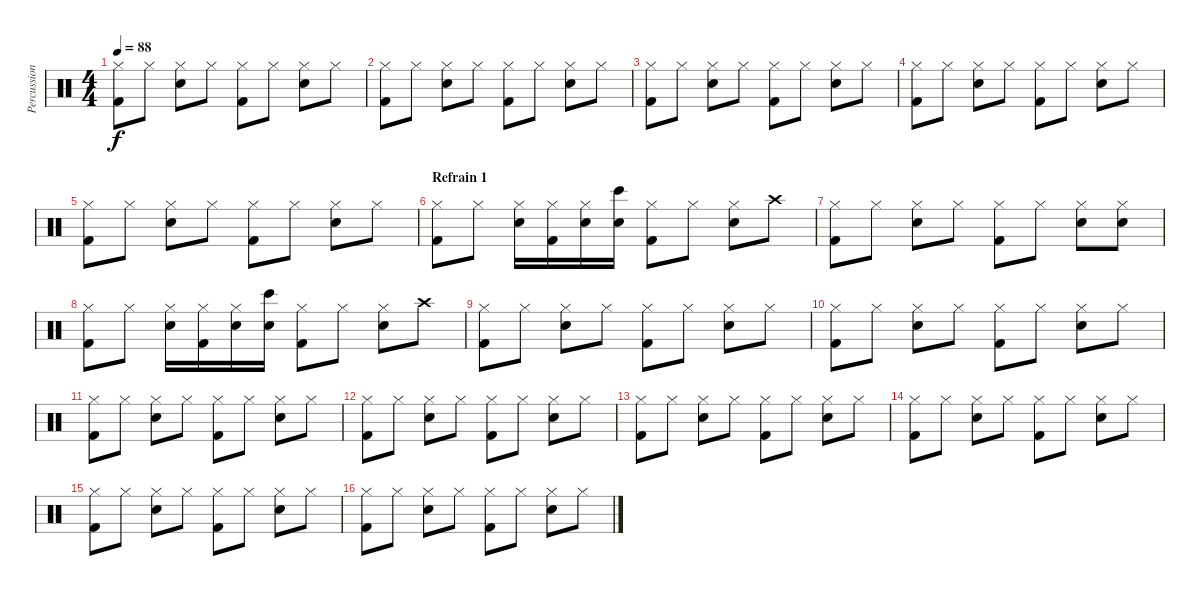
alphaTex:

\track ("Percussions" "Percussion") {instrument percussion}
\staff {score}
\articulation defaults
\ts (4 4)
\tempo 88
\clef neutral
\ks c
("Hi-Hat (closed)" "Kick (hit) 2").8{dy f} "Hi-Hat (closed)".8 ("Hi-Hat (closed)" "Snare (hit) 2").8 "Hi-Hat (closed)".8 ("Hi-Hat (closed)" "Kick (hit) 2").8 "Hi-Hat (closed)".8 ("Hi-Hat (closed)" "Snare (hit) 2").8 "Hi-Hat (closed)".8 |
("Hi-Hat (closed)" "Kick (hit) 2").8 "Hi-Hat (closed)".8 ("Hi-Hat (closed)" "Snare (hit) 2").8 "Hi-Hat (closed)".8 ("Hi-Hat (closed)" "Kick (hit) 2").8 "Hi-Hat (closed)".8 ("Hi-Hat (closed)" "Snare (hit) 2").8 "Hi-Hat (closed)".8 |
("Hi-Hat (closed)" "Kick (hit) 2").8 "Hi-Hat (closed)".8 ("Hi-Hat (closed)" "Snare (hit) 2").8 "Hi-Hat (closed)".8 ("Hi-Hat (closed)" "Kick (hit) 2").8 "Hi-Hat (closed)".8 ("Hi-Hat (closed)" "Snare (hit) 2").8 "Hi-Hat (closed)".8 |
("Hi-Hat (closed)" "Kick (hit) 2").8 "Hi-Hat (closed)".8 ("Hi-Hat (closed)" "Snare (hit) 2").8 "Hi-Hat (closed)".8 ("Hi-Hat (closed)" "Kick (hit) 2").8 "Hi-Hat (closed)".8 ("Hi-Hat (closed)" "Snare (hit) 2").8 "Hi-Hat (closed)".8 |
("Hi-Hat (closed)" "Kick (hit) 2").8 "Hi-Hat (closed)".8 ("Hi-Hat (closed)" "Snare (hit) 2").8 "Hi-Hat (closed)".8 ("Hi-Hat (closed)" "Kick (hit) 2").8 "Hi-Hat (closed)".8 ("Hi-Hat (closed)" "Snare (hit) 2").8 "Hi-Hat (closed)".8 |
\section ("" "Refrain 1 ")
("Hi-Hat (closed)" "Kick (hit) 2").8 "Hi-Hat (closed)".8 ("Hi-Hat (closed)" "Snare (hit) 2").16 ("Hi-Hat (closed)" "Kick (hit) 2").16 ("Hi-Hat (closed)" "Snare (hit) 2").16 ("Bongo High (hit)" "Snare (hit) 2").16 ("Hi-Hat (closed)" "Kick (hit) 2").8 "Hi-Hat (closed)".8 ("Hi-Hat (closed)" "Snare (hit) 2").8 "Crash high (hit)".8 |
("Hi-Hat (closed)" "Kick (hit) 2").8 "Hi-Hat (closed)".8 ("Hi-Hat (closed)" "Snare (hit) 2").8 "Hi-Hat (closed)".8 ("Hi-Hat (closed)" "Kick (hit) 2").8 "Hi-Hat (closed)".8 ("Hi-Hat (closed)" "Snare (hit) 2").8 ("Hi-Hat (closed)" "Snare (hit) 2").8 |
("Hi-Hat (closed)" "Kick (hit) 2").8 "Hi-Hat (closed)".8 ("Hi-Hat (closed)" "Snare (hit) 2").16 ("Hi-Hat (closed)" "Kick (hit) 2").16 ("Hi-Hat (closed)" "Snare (hit) 2").16 ("Bongo High (hit)" "Snare (hit) 2").16 ("Hi-Hat (closed)" "Kick (hit) 2").8 "Hi-Hat (closed)".8 ("Hi-Hat (closed)" "Snare (hit) 2").8 "Crash high (hit)".8 |
("Hi-Hat (closed)" "Kick (hit) 2").8 "Hi-Hat (closed)".8 ("Hi-Hat (closed)" "Snare (hit) 2").8 "Hi-Hat (closed)".8 ("Hi-Hat (closed)" "Kick (hit) 2").8 "Hi-Hat (closed)".8 ("Hi-Hat (closed)" "Snare (hit) 2").8 "Hi-Hat (closed)".8 |
("Hi-Hat (closed)" "Kick (hit) 2").8 "Hi-Hat (closed)".8 ("Hi-Hat (closed)" "Snare (hit) 2").8 "Hi-Hat (closed)".8 ("Hi-Hat (closed)" "Kick (hit) 2").8 "Hi-Hat (closed)".8 ("Hi-Hat (closed)" "Snare (hit) 2").8 "Hi-Hat (closed)".8 |
("Hi-Hat (closed)" "Kick (hit) 2").8 "Hi-Hat (closed)".8 ("Hi-Hat (closed)" "Snare (hit) 2").8 "Hi-Hat (closed)".8 ("Hi-Hat (closed)" "Kick (hit) 2").8 "Hi-Hat (closed)".8 ("Hi-Hat (closed)" "Snare (hit) 2").8 "Hi-Hat (closed)".8 |
("Hi-Hat (closed)" "Kick (hit) 2").8 "Hi-Hat (closed)".8 ("Hi-Hat (closed)" "Snare (hit) 2").8 "Hi-Hat (closed)".8 ("Hi-Hat (closed)" "Kick (hit) 2").8 "Hi-Hat (closed)".8 ("Hi-Hat (closed)" "Snare (hit) 2").8 "Hi-Hat (closed)".8 |
("Hi-Hat (closed)" "Kick (hit) 2").8 "Hi-Hat (closed)".8 ("Hi-Hat (closed)" "Snare (hit) 2").8 "Hi-Hat (closed)".8 ("Hi-Hat (closed)" "Kick (hit) 2").8 "Hi-Hat (closed)".8 ("Hi-Hat (closed)" "Snare (hit) 2").8 "Hi-Hat (closed)".8 |
("Hi-Hat (closed)" "Kick (hit) 2").8 "Hi-Hat (closed)".8 ("Hi-Hat (closed)" "Snare (hit) 2").8 "Hi-Hat (closed)".8 ("Hi-Hat (closed)" "Kick (hit) 2").8 "Hi-Hat (closed)".8 ("Hi-Hat (closed)" "Snare (hit) 2").8 "Hi-Hat (closed)".8 |
("Hi-Hat (closed)" "Kick (hit) 2").8 "Hi-Hat (closed)".8 ("Hi-Hat (closed)" "Snare (hit) 2").8 "Hi-Hat (closed)".8 ("Hi-Hat (closed)" "Kick (hit) 2").8 "Hi-Hat (closed)".8 ("Hi-Hat (closed)" "Snare (hit) 2").8 "Hi-Hat (closed)".8 |
("Hi-Hat (closed)" "Kick (hit) 2").8 "Hi-Hat (closed)".8 ("Hi-Hat (closed)" "Snare (hit) 2").8 "Hi-Hat (closed)".8 ("Hi-Hat (closed)" "Kick (hit) 2").8 "Hi-Hat (closed)".8 ("Hi-Hat (closed)" "Snare (hit) 2").8 "Hi-Hat (closed)".8
